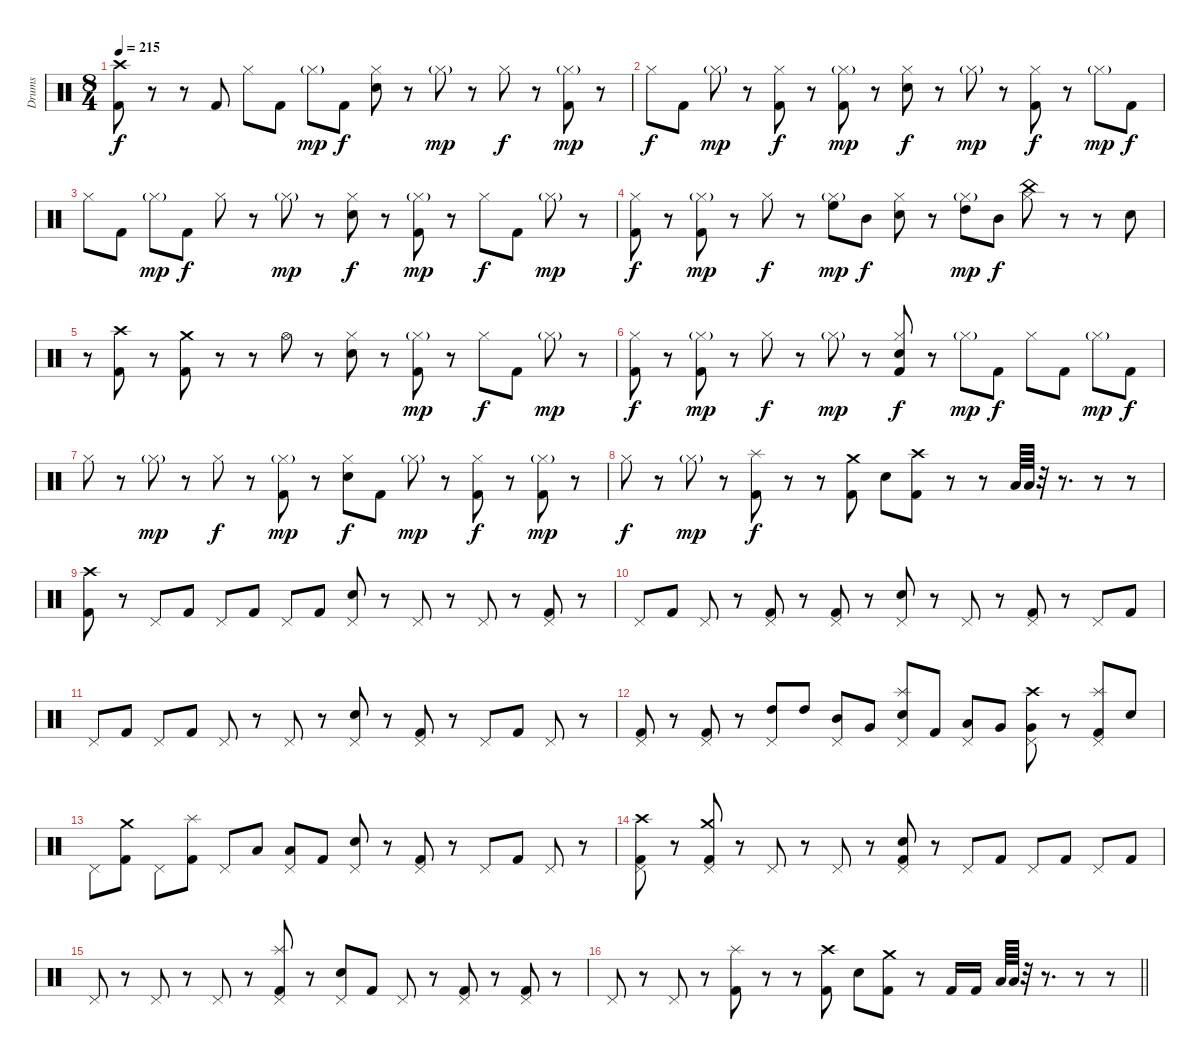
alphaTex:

\track ("Drums" "Drums") {instrument percussion}
\staff {score}
\articulation defaults
\ts (8 4)
\section ("" "")
\tempo 215
\clef neutral
\ks c
("Crash high (hit)" "Kick (hit) 2").8{dy f} r.8 r.8 "Kick (hit) 2".8 "Hi-Hat (closed)".8 "Kick (hit) 2".8 "Hi-Hat (closed)"{g}.8{dy mp} "Kick (hit) 2".8{dy f} ("Hi-Hat (closed)" "Electric Snare (hit)").8 r.8 "Hi-Hat (closed)"{g}.8{dy mp} r.8 "Hi-Hat (closed)".8{dy f} r.8 ("Hi-Hat (closed)"{g} "Kick (hit) 2").8{dy mp} r.8 |
"Hi-Hat (closed)".8{dy f} "Kick (hit) 2".8 "Hi-Hat (closed)"{g}.8{dy mp} r.8 ("Hi-Hat (closed)" "Kick (hit) 2").8{dy f} r.8 ("Hi-Hat (closed)"{g} "Kick (hit) 2").8{dy mp} r.8 ("Hi-Hat (closed)" "Electric Snare (hit)").8{dy f} r.8 "Hi-Hat (closed)"{g}.8{dy mp} r.8 ("Hi-Hat (closed)" "Kick (hit) 2").8{dy f} r.8 "Hi-Hat (closed)"{g}.8{dy mp} "Kick (hit) 2".8{dy f} |
"Hi-Hat (closed)".8 "Kick (hit) 2".8 "Hi-Hat (closed)"{g}.8{dy mp} "Kick (hit) 2".8{dy f} "Hi-Hat (closed)".8 r.8 "Hi-Hat (closed)"{g}.8{dy mp} r.8 ("Hi-Hat (closed)" "Electric Snare (hit)").8{dy f} r.8 ("Hi-Hat (closed)"{g} "Kick (hit) 2").8{dy mp} r.8 "Hi-Hat (closed)".8{dy f} "Kick (hit) 2".8 "Hi-Hat (closed)"{g}.8{dy mp} r.8 |
("Hi-Hat (closed)" "Kick (hit) 2").8{dy f} r.8 ("Hi-Hat (closed)"{g} "Kick (hit) 2").8{dy mp} r.8 "Hi-Hat (closed)".8{dy f} r.8 ("High Floor Tom (hit)" "Hi-Hat (closed)"{g}).8{dy mp} "Mid Tom (hit)".8{dy f} ("Hi-Hat (closed)" "Electric Snare (hit)").8 r.8 ("High Tom (hit)" "Hi-Hat (closed)"{g}).8{dy mp} "Mid Tom (hit)".8{dy f} ("China (hit)" "Hi-Hat (closed)").8 r.8 r.8 "Electric Snare (hit)".8 |
r.8 ("Crash high (hit)" "Kick (hit) 2").8 r.8 ("Crash medium (hit)" "Kick (hit) 2").8 r.8 r.8 "Hi-Hat (open)".8 r.8 ("Hi-Hat (closed)" "Electric Snare (hit)").8 r.8 ("Hi-Hat (closed)"{g} "Kick (hit) 2").8{dy mp} r.8 "Hi-Hat (closed)".8{dy f} "Kick (hit) 2".8 "Hi-Hat (closed)"{g}.8{dy mp} r.8 |
("Hi-Hat (closed)" "Kick (hit) 2").8{dy f} r.8 ("Hi-Hat (closed)"{g} "Kick (hit) 2").8{dy mp} r.8 "Hi-Hat (closed)".8{dy f} r.8 "Hi-Hat (closed)"{g}.8{dy mp} r.8 ("Hi-Hat (closed)" "Electric Snare (hit)" "Kick (hit) 2").8{dy f} r.8 "Hi-Hat (closed)"{g}.8{dy mp} "Kick (hit) 2".8{dy f} "Hi-Hat (closed)".8 "Kick (hit) 2".8 "Hi-Hat (closed)"{g}.8{dy mp} "Kick (hit) 2".8{dy f} |
"Hi-Hat (closed)".8 r.8 "Hi-Hat (closed)"{g}.8{dy mp} r.8 "Hi-Hat (closed)".8{dy f} r.8 ("Hi-Hat (closed)"{g} "Kick (hit) 2").8{dy mp} r.8 ("Hi-Hat (closed)" "Electric Snare (hit)").8{dy f} "Kick (hit) 2".8 "Hi-Hat (closed)"{g}.8{dy mp} r.8 ("Hi-Hat (closed)" "Kick (hit) 2").8{dy f} r.8 ("Hi-Hat (closed)"{g} "Kick (hit) 2").8{dy mp} r.8 |
"Hi-Hat (closed)".8{dy f} r.8 "Hi-Hat (closed)"{g}.8{dy mp} r.8 ("Splash (hit)" "Kick (hit) 2").8{dy f} r.8 r.8 ("Crash medium (hit)" "Kick (hit) 2").8 "Electric Snare (hit)".8 ("Crash high (hit)" "Kick (hit) 2").8 r.8 r.8 "Low Floor Tom (hit)".64 "Low Tom (hit)".64 r.32 r.8{d} r.8 r.8 |
("Crash high (hit)" "Kick (hit) 2").8 r.8 "Pedal Hi-Hat (hit)".8 "Kick (hit) 2".8 "Pedal Hi-Hat (hit)".8 "Kick (hit) 2".8 "Pedal Hi-Hat (hit)".8 "Kick (hit) 2".8 ("Pedal Hi-Hat (hit)" "Electric Snare (hit)").8 r.8 "Pedal Hi-Hat (hit)".8 r.8 "Pedal Hi-Hat (hit)".8 r.8 ("Pedal Hi-Hat (hit)" "Kick (hit) 2").8 r.8 |
"Pedal Hi-Hat (hit)".8 "Kick (hit) 2".8 "Pedal Hi-Hat (hit)".8 r.8 ("Pedal Hi-Hat (hit)" "Kick (hit) 2").8 r.8 ("Pedal Hi-Hat (hit)" "Kick (hit) 2").8 r.8 ("Pedal Hi-Hat (hit)" "Electric Snare (hit)").8 r.8 "Pedal Hi-Hat (hit)".8 r.8 ("Pedal Hi-Hat (hit)" "Kick (hit) 2").8 r.8 "Pedal Hi-Hat (hit)".8 "Kick (hit) 2".8 |
"Pedal Hi-Hat (hit)".8 "Kick (hit) 2".8 "Pedal Hi-Hat (hit)".8 "Kick (hit) 2".8 "Pedal Hi-Hat (hit)".8 r.8 "Pedal Hi-Hat (hit)".8 r.8 ("Pedal Hi-Hat (hit)" "Electric Snare (hit)").8 r.8 ("Pedal Hi-Hat (hit)" "Kick (hit) 2").8 r.8 "Pedal Hi-Hat (hit)".8 "Kick (hit) 2".8 "Pedal Hi-Hat (hit)".8 r.8 |
("Pedal Hi-Hat (hit)" "Kick (hit) 2").8 r.8 ("Pedal Hi-Hat (hit)" "Kick (hit) 2").8 r.8 ("High Tom (hit)" "Pedal Hi-Hat (hit)").8 "High Tom (hit)".8 ("Mid Tom (hit)" "Pedal Hi-Hat (hit)").8 "Very Low Tom (hit)".8 ("Splash (hit)" "Pedal Hi-Hat (hit)" "Electric Snare (hit)").8 "Kick (hit) 2".8 ("Pedal Hi-Hat (hit)" "Low Floor Tom (hit)").8 "Very Low Tom (hit)".8 ("Crash high (hit)" "Pedal Hi-Hat (hit)" "Very Low Tom (hit)").8 r.8 ("Splash (hit)" "Pedal Hi-Hat (hit)" "Kick (hit) 2").8 "Electric Snare (hit)".8 |
"Pedal Hi-Hat (hit)".8 ("Crash medium (hit)" "Kick (hit) 2").8 "Pedal Hi-Hat (hit)".8 ("Splash (hit)" "Kick (hit) 2").8 "Pedal Hi-Hat (hit)".8 "Low Floor Tom (hit)".8 ("Pedal Hi-Hat (hit)" "Low Floor Tom (hit)").8 "Kick (hit) 2".8 ("Pedal Hi-Hat (hit)" "Electric Snare (hit)").8 r.8 ("Pedal Hi-Hat (hit)" "Kick (hit) 2").8 r.8 "Pedal Hi-Hat (hit)".8 "Kick (hit) 2".8 "Pedal Hi-Hat (hit)".8 r.8 |
("Crash high (hit)" "Pedal Hi-Hat (hit)" "Kick (hit) 2").8 r.8 ("Crash medium (hit)" "Pedal Hi-Hat (hit)" "Kick (hit) 2").8 r.8 "Pedal Hi-Hat (hit)".8 r.8 "Pedal Hi-Hat (hit)".8 r.8 ("Pedal Hi-Hat (hit)" "Electric Snare (hit)" "Kick (hit) 2").8 r.8 "Pedal Hi-Hat (hit)".8 "Kick (hit) 2".8 "Pedal Hi-Hat (hit)".8 "Kick (hit) 2".8 "Pedal Hi-Hat (hit)".8 "Kick (hit) 2".8 |
"Pedal Hi-Hat (hit)".8 r.8 "Pedal Hi-Hat (hit)".8 r.8 "Pedal Hi-Hat (hit)".8 r.8 ("Splash (hit)" "Pedal Hi-Hat (hit)" "Kick (hit) 2").8 r.8 ("Pedal Hi-Hat (hit)" "Electric Snare (hit)").8 "Kick (hit) 2".8 "Pedal Hi-Hat (hit)".8 r.8 ("Pedal Hi-Hat (hit)" "Kick (hit) 2").8 r.8 ("Pedal Hi-Hat (hit)" "Kick (hit) 2").8 r.8 |
\barLineRight lightlight "Pedal Hi-Hat (hit)".8
r.8 "Pedal Hi-Hat (hit)".8 r.8 ("Splash (hit)" "Kick (hit) 2").8 r.8 r.8 ("Crash high (hit)" "Kick (hit) 2").8 "Electric Snare (hit)".8 ("Crash medium (hit)" "Kick (hit) 2").8 r.8 "Kick (hit) 2".16 "Kick (hit) 2".16 "Low Floor Tom (hit)".64 "Low Tom (hit)".64 r.32 r.8{d} r.8 r.8
